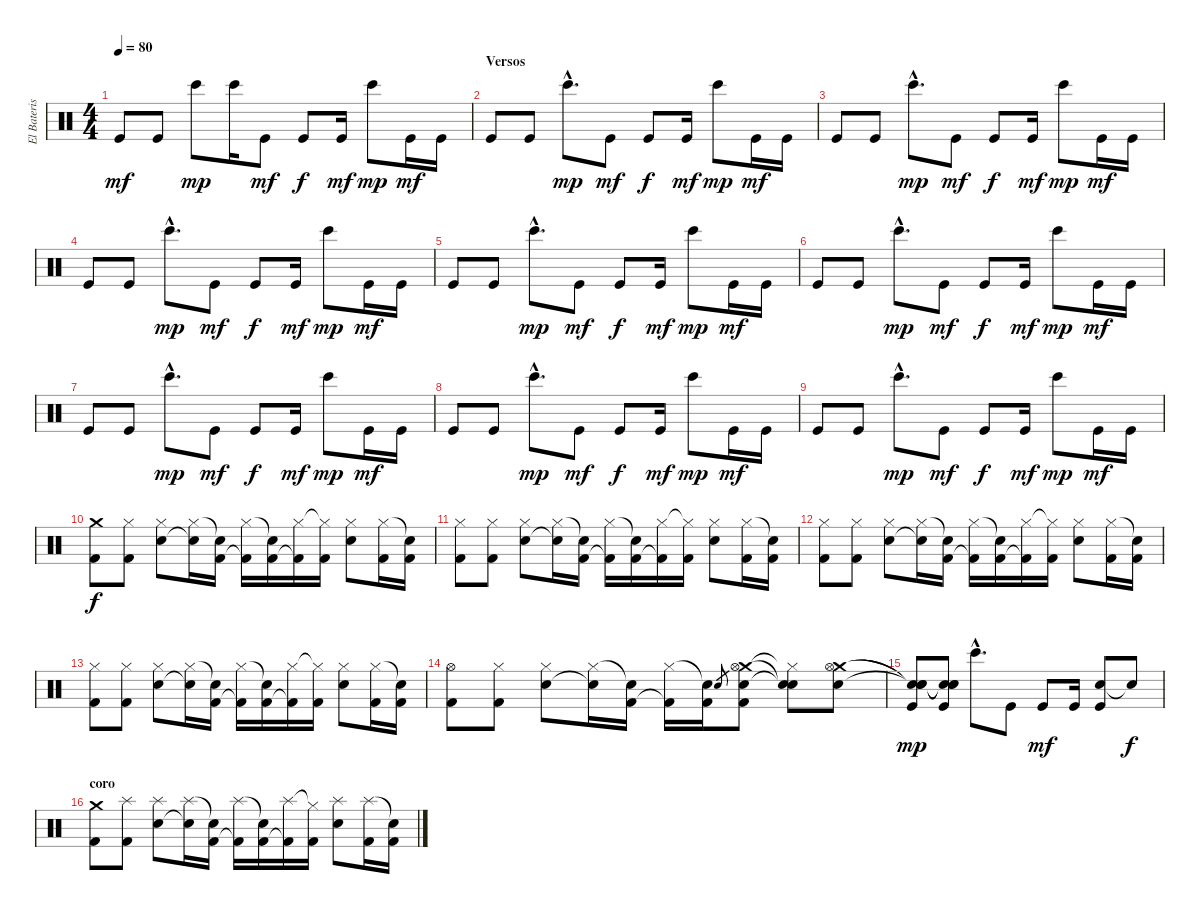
\track ("El Baterista" "El Bateris") {instrument percussion}
\staff {score}
\articulation defaults
\ts (4 4)
\tempo 80
\tempo 60
\tempo 80
\clef neutral
\ks c "Kick (hit)".8{dy mf} "Kick (hit)".8 "Bongo High (hit)".8{dy mp} "Bongo High (hit)".16 "Kick (hit)".8{dy mf} "Kick (hit)".8{dy f} "Kick (hit)".16{dy mf} "Bongo High (hit)".8{dy mp} "Kick (hit)".16{dy mf} "Kick (hit)".16
|
\section ("" "Versos")
"Kick (hit)".8 "Kick (hit)".8 "Bongo High (hit)"{hac}.8{d dy mp} "Kick (hit)".8{dy mf} "Kick (hit)".8{dy f} "Kick (hit)".16{dy mf} "Bongo High (hit)".8{dy mp} "Kick (hit)".16{dy mf} "Kick (hit)".16 |
"Kick (hit)".8 "Kick (hit)".8 "Bongo High (hit)"{hac}.8{d dy mp} "Kick (hit)".8{dy mf} "Kick (hit)".8{dy f} "Kick (hit)".16{dy mf} "Bongo High (hit)".8{dy mp} "Kick (hit)".16{dy mf} "Kick (hit)".16 |
"Kick (hit)".8 "Kick (hit)".8 "Bongo High (hit)"{hac}.8{d dy mp} "Kick (hit)".8{dy mf} "Kick (hit)".8{dy f} "Kick (hit)".16{dy mf} "Bongo High (hit)".8{dy mp} "Kick (hit)".16{dy mf} "Kick (hit)".16 |
"Kick (hit)".8 "Kick (hit)".8 "Bongo High (hit)"{hac}.8{d dy mp} "Kick (hit)".8{dy mf} "Kick (hit)".8{dy f} "Kick (hit)".16{dy mf} "Bongo High (hit)".8{dy mp} "Kick (hit)".16{dy mf} "Kick (hit)".16 |
"Kick (hit)".8 "Kick (hit)".8 "Bongo High (hit)"{hac}.8{d dy mp} "Kick (hit)".8{dy mf} "Kick (hit)".8{dy f} "Kick (hit)".16{dy mf} "Bongo High (hit)".8{dy mp} "Kick (hit)".16{dy mf} "Kick (hit)".16 |
"Kick (hit)".8 "Kick (hit)".8 "Bongo High (hit)"{hac}.8{d dy mp} "Kick (hit)".8{dy mf} "Kick (hit)".8{dy f} "Kick (hit)".16{dy mf} "Bongo High (hit)".8{dy mp} "Kick (hit)".16{dy mf} "Kick (hit)".16 |
"Kick (hit)".8 "Kick (hit)".8 "Bongo High (hit)"{hac}.8{d dy mp} "Kick (hit)".8{dy mf} "Kick (hit)".8{dy f} "Kick (hit)".16{dy mf} "Bongo High (hit)".8{dy mp} "Kick (hit)".16{dy mf} "Kick (hit)".16 |
"Kick (hit)".8 "Kick (hit)".8 "Bongo High (hit)"{hac}.8{d dy mp} "Kick (hit)".8{dy mf} "Kick (hit)".8{dy f} "Kick (hit)".16{dy mf} "Bongo High (hit)".8{dy mp} "Kick (hit)".16{dy mf} "Kick (hit)".16 |
("Crash medium (hit)" "Kick (hit) 2").8{dy f} ("Hi-Hat (closed)" "Kick (hit) 2").8 ("Hi-Hat (closed)" "Electric Snare (hit)").8 ("Hi-Hat (closed)" "Snare (hit)"{t}).16 ("Snare (hit)"{t} "Kick (hit) 2").16 ("Hi-Hat (closed)" "Kick (hit) 2"{t}).16 ("Snare (hit)"{t} "Kick (hit) 2").16 ("Hi-Hat (closed)" "Kick (hit) 2"{t}).16 ("Hi-Hat (closed)"{t} "Kick (hit) 2").16 ("Hi-Hat (closed)" "Electric Snare (hit)").8 ("Hi-Hat (closed)" "Kick (hit) 2").16 ("Snare (hit)"{t} "Kick (hit) 2").16 |
("Hi-Hat (closed)" "Kick (hit) 2").8 ("Hi-Hat (closed)" "Kick (hit) 2").8 ("Hi-Hat (closed)" "Electric Snare (hit)").8 ("Hi-Hat (closed)" "Snare (hit)"{t}).16 ("Snare (hit)"{t} "Kick (hit) 2").16 ("Hi-Hat (closed)" "Kick (hit) 2"{t}).16 ("Snare (hit)"{t} "Kick (hit) 2").16 ("Hi-Hat (closed)" "Kick (hit) 2"{t}).16 ("Hi-Hat (closed)"{t} "Kick (hit) 2").16 ("Hi-Hat (closed)" "Electric Snare (hit)").8 ("Hi-Hat (closed)" "Kick (hit) 2").16 ("Snare (hit)"{t} "Kick (hit) 2").16 |
("Hi-Hat (closed)" "Kick (hit) 2").8 ("Hi-Hat (closed)" "Kick (hit) 2").8 ("Hi-Hat (closed)" "Electric Snare (hit)").8 ("Hi-Hat (closed)" "Snare (hit)"{t}).16 ("Snare (hit)"{t} "Kick (hit) 2").16 ("Hi-Hat (closed)" "Kick (hit) 2"{t}).16 ("Snare (hit)"{t} "Kick (hit) 2").16 ("Hi-Hat (closed)" "Kick (hit) 2"{t}).16 ("Hi-Hat (closed)"{t} "Kick (hit) 2").16 ("Hi-Hat (closed)" "Electric Snare (hit)").8 ("Hi-Hat (closed)" "Kick (hit) 2").16 ("Snare (hit)"{t} "Kick (hit) 2").16 |
("Hi-Hat (closed)" "Kick (hit) 2").8 ("Hi-Hat (closed)" "Kick (hit) 2").8 ("Hi-Hat (closed)" "Electric Snare (hit)").8 ("Hi-Hat (closed)" "Snare (hit)"{t}).16 ("Snare (hit)"{t} "Kick (hit) 2").16 ("Hi-Hat (closed)" "Kick (hit) 2"{t}).16 ("Snare (hit)"{t} "Kick (hit) 2").16 ("Hi-Hat (closed)" "Kick (hit) 2"{t}).16 ("Hi-Hat (closed)"{t} "Kick (hit) 2").16 ("Hi-Hat (closed)" "Electric Snare (hit)").8 ("Hi-Hat (closed)" "Kick (hit) 2").16 ("Snare (hit)"{t} "Kick (hit) 2").16 |
\section ("" "")
("Hi-Hat (open)" "Kick (hit) 2").8 ("Hi-Hat (closed)" "Kick (hit) 2").8 ("Hi-Hat (closed)" "Electric Snare (hit)").8 ("Hi-Hat (closed)" "Snare (hit)"{t}).16 ("Snare (hit)"{t} "Kick (hit) 2").16 ("Hi-Hat (closed)" "Kick (hit) 2"{t}).16 ("Snare (hit)"{t} "Kick (hit) 2").16 "Electric Snare (hit)".8{gr} ("Crash medium (hit)" "Hi-Hat (open)" "Electric Snare (hit)" "Kick (hit) 2").8 ("Snare (hit)"{t} "Hi-Hat (closed)"{t} "Snare (hit)"{t}).8 ("Crash medium (hit)" "Hi-Hat (open)" "Electric Snare (hit)").8 |
("Snare (hit)"{t} "Snare (hit)"{t} "Snare (hit)"{t} "Kick (hit)").8{dy mp} ("Snare (hit)"{t} "Snare (hit)"{t} "Snare (hit)"{t} "Kick (hit)").8 "Bongo High (hit)"{hac}.8{d} "Kick (hit)".8 "Kick (hit)".8{dy mf} "Kick (hit)".16 ("Electric Snare (hit)" "Kick (hit)").8 "Snare (hit)"{t}.8{dy f} |
\section ("" "coro")
("Crash medium (hit)" "Kick (hit) 2").8 ("Splash (hit)" "Kick (hit) 2").8 ("Splash (hit)" "Electric Snare (hit)").8 ("Splash (hit)" "Snare (hit)"{t}).16 ("Snare (hit)"{t} "Kick (hit) 2").16 ("Splash (hit)" "Kick (hit) 2"{t}).16 ("Snare (hit)"{t} "Kick (hit) 2").16 ("Splash (hit)" "Kick (hit) 2"{t}).16 ("Hi-Hat (closed)"{t} "Kick (hit) 2").16 ("Splash (hit)" "Electric Snare (hit)").8 ("Splash (hit)" "Kick (hit) 2").16 ("Snare (hit)"{t} "Kick (hit) 2").16
